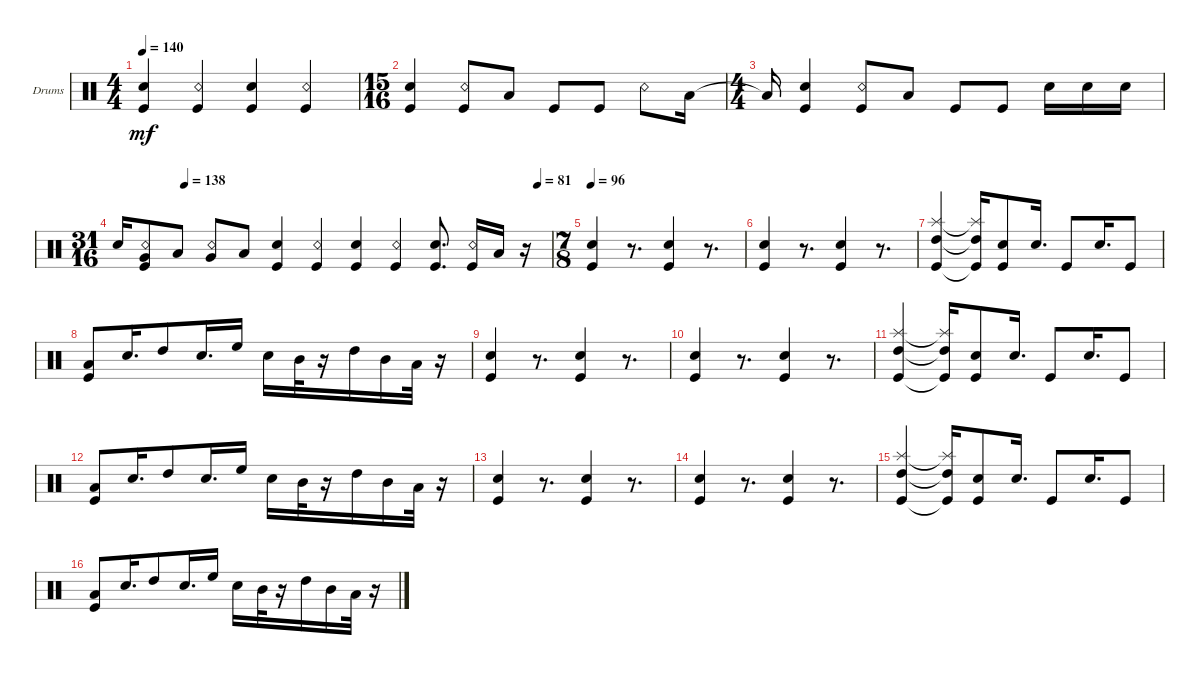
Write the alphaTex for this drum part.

\defaultSystemsLayout 4
\bracketExtendMode groupsimilarinstruments
\firstSystemTrackNameOrientation horizontal
\otherSystemsTrackNameOrientation horizontal
\track ("Drumkit" "Drums") {instrument percussion}
\staff {score}
\articulation defaults
\ts (4 4)
\tempo 140
\clef neutral
\ks c
("Kick (hit)" "Snare (hit) 2").4{dy mf} ("Kick (hit)" "Snare (rim shot)").4 ("Kick (hit)" "Snare (hit) 2").4 ("Snare (rim shot)" "Kick (hit)").4 |
\ts (15 16)
("Kick (hit)" "Snare (hit) 2").4 ("Kick (hit)" "Snare (rim shot)").8 "Low Tom (hit)".8 "Kick (hit)".8 "Kick (hit)".8 "Snare (rim shot)".8 "Low Tom (hit)".16 |
\ts (4 4)
"Low Tom (hit)"{t}.16 ("Kick (hit)" "Snare (hit) 2").4 ("Kick (hit)" "Snare (rim shot)").8 "Low Tom (hit)".8 "Kick (hit)".8 "Kick (hit)".8 "Snare (hit) 2".16 "Snare (hit) 2".16 "Snare (hit) 2".16 |
\ts (31 16)
\tempo (138 0.15625)
\tempo (81 0.96875)
"Snare (hit) 2".16 ("Very Low Tom (hit)" "Snare (rim shot)" "Kick (hit)").8 "Low Tom (hit)".8 ("Very Low Tom (hit)" "Snare (rim shot)").8 "Low Tom (hit)".8 ("Kick (hit)" "Snare (hit) 2").4 ("Kick (hit)" "Snare (rim shot)").4 ("Kick (hit)" "Snare (hit) 2").4 ("Kick (hit)" "Snare (rim shot)").4 ("Kick (hit)" "Snare (hit) 2").8{d} ("Kick (hit)" "Snare (rim shot)").16 "Low Tom (hit)".16 r.16 |
\ts (7 8)
\tempo 96
("Kick (hit)" "Snare (hit) 2").4 r.8{d} ("Kick (hit)" "Snare (hit) 2").4 r.8{d} |
("Kick (hit)" "Snare (hit) 2").4 r.8{d} ("Kick (hit)" "Snare (hit) 2").4 r.8{d} |
("Splash (hit)" "Kick (hit)" "High Tom (hit)").4 ("Splash (hit)"{t} "Kick (hit)"{t} "High Tom (hit)"{t}).16 ("Snare (hit) 2" "Kick (hit)").8 "Snare (hit) 2".16{d} "Kick (hit)".8 "Snare (hit) 2".16{d} "Kick (hit)".8 |
("Low Tom (hit)" "Kick (hit)").8 "Snare (hit) 2".16{d} "High Tom (hit)".8 "Snare (hit) 2".16{d} "High Floor Tom (hit)".16 "Snare (hit) 2".16 "Mid Tom (hit)".32 r.16 "High Tom (hit)".16 "Mid Tom (hit)".16 "Low Tom (hit)".32 r.16 |
("Kick (hit)" "Snare (hit) 2").4 r.8{d} ("Kick (hit)" "Snare (hit) 2").4 r.8{d} |
("Kick (hit)" "Snare (hit) 2").4 r.8{d} ("Kick (hit)" "Snare (hit) 2").4 r.8{d} |
("Splash (hit)" "Kick (hit)" "High Tom (hit)").4 ("Splash (hit)"{t} "Kick (hit)"{t} "High Tom (hit)"{t}).16 ("Snare (hit) 2" "Kick (hit)").8 "Snare (hit) 2".16{d} "Kick (hit)".8 "Snare (hit) 2".16{d} "Kick (hit)".8 |
("Low Tom (hit)" "Kick (hit)").8 "Snare (hit) 2".16{d} "High Tom (hit)".8 "Snare (hit) 2".16{d} "High Floor Tom (hit)".16 "Snare (hit) 2".16 "Mid Tom (hit)".32 r.16 "High Tom (hit)".16 "Mid Tom (hit)".16 "Low Tom (hit)".32 r.16 |
("Kick (hit)" "Snare (hit) 2").4 r.8{d} ("Kick (hit)" "Snare (hit) 2").4 r.8{d} |
("Kick (hit)" "Snare (hit) 2").4 r.8{d} ("Kick (hit)" "Snare (hit) 2").4 r.8{d} |
("Splash (hit)" "Kick (hit)" "High Tom (hit)").4 ("Splash (hit)"{t} "Kick (hit)"{t} "High Tom (hit)"{t}).16 ("Snare (hit) 2" "Kick (hit)").8 "Snare (hit) 2".16{d} "Kick (hit)".8 "Snare (hit) 2".16{d} "Kick (hit)".8 |
("Low Tom (hit)" "Kick (hit)").8 "Snare (hit) 2".16{d} "High Tom (hit)".8 "Snare (hit) 2".16{d} "High Floor Tom (hit)".16 "Snare (hit) 2".16 "Mid Tom (hit)".32 r.16 "High Tom (hit)".16 "Mid Tom (hit)".16 "Low Tom (hit)".32 r.16
